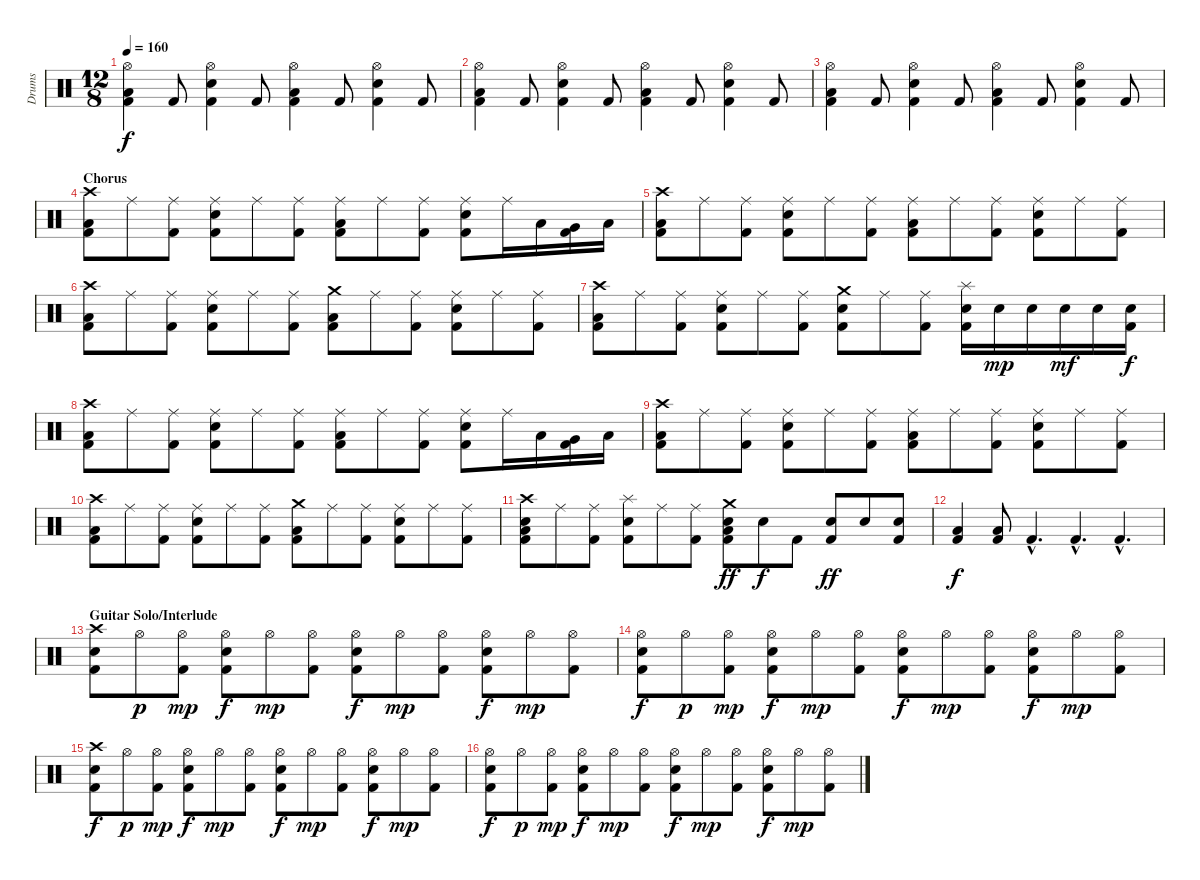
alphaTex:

\track ("Drums" "Drums") {instrument percussion}
\staff {score}
\articulation defaults
\ts (12 8)
\tempo 160
\clef neutral
\ks c
("Hi-Hat (open)" "Low Tom (hit)" "Kick (hit) 2").4{dy f} "Kick (hit) 2".8 ("Hi-Hat (open)" "Electric Snare (hit)" "Kick (hit) 2").4 "Kick (hit) 2".8 ("Hi-Hat (open)" "Low Tom (hit)" "Kick (hit) 2").4 "Kick (hit) 2".8 ("Hi-Hat (open)" "Electric Snare (hit)" "Kick (hit) 2").4 "Kick (hit) 2".8 |
("Hi-Hat (open)" "Low Tom (hit)" "Kick (hit) 2").4 "Kick (hit) 2".8 ("Hi-Hat (open)" "Electric Snare (hit)" "Kick (hit) 2").4 "Kick (hit) 2".8 ("Hi-Hat (open)" "Low Tom (hit)" "Kick (hit) 2").4 "Kick (hit) 2".8 ("Hi-Hat (open)" "Electric Snare (hit)" "Kick (hit) 2").4 "Kick (hit) 2".8 |
("Hi-Hat (open)" "Low Tom (hit)" "Kick (hit) 2").4 "Kick (hit) 2".8 ("Hi-Hat (open)" "Electric Snare (hit)" "Kick (hit) 2").4 "Kick (hit) 2".8 ("Hi-Hat (open)" "Low Tom (hit)" "Kick (hit) 2").4 "Kick (hit) 2".8 ("Hi-Hat (open)" "Electric Snare (hit)" "Kick (hit) 2").4 "Kick (hit) 2".8 |
\section ("" "Chorus")
("Crash high (hit)" "Low Tom (hit)" "Kick (hit) 2").8 "Ride (middle)".8 ("Ride (middle)" "Kick (hit) 2").8 ("Ride (middle)" "Electric Snare (hit)" "Kick (hit) 2").8 "Ride (middle)".8 ("Ride (middle)" "Kick (hit) 2").8 ("Ride (middle)" "Low Tom (hit)" "Kick (hit) 2").8 "Ride (middle)".8 ("Ride (middle)" "Kick (hit) 2").8 ("Ride (middle)" "Electric Snare (hit)" "Kick (hit) 2").8 "Ride (middle)".16 "Low Floor Tom (hit)".16 ("Very Low Tom (hit)" "Kick (hit) 2").16 "Low Tom (hit)".16 |
("Crash high (hit)" "Low Tom (hit)" "Kick (hit) 2").8 "Ride (middle)".8 ("Ride (middle)" "Kick (hit) 2").8 ("Ride (middle)" "Electric Snare (hit)" "Kick (hit) 2").8 "Ride (middle)".8 ("Ride (middle)" "Kick (hit) 2").8 ("Ride (middle)" "Low Tom (hit)" "Kick (hit) 2").8 "Ride (middle)".8 ("Ride (middle)" "Kick (hit) 2").8 ("Ride (middle)" "Electric Snare (hit)" "Kick (hit) 2").8 "Ride (middle)".8 ("Ride (middle)" "Kick (hit) 2").8 |
("Crash high (hit)" "Low Tom (hit)" "Kick (hit) 2").8 "Ride (middle)".8 ("Ride (middle)" "Kick (hit) 2").8 ("Ride (middle)" "Electric Snare (hit)" "Kick (hit) 2").8 "Ride (middle)".8 ("Ride (middle)" "Kick (hit) 2").8 ("Crash medium (hit)" "Low Tom (hit)" "Kick (hit) 2").8 "Ride (middle)".8 ("Ride (middle)" "Kick (hit) 2").8 ("Ride (middle)" "Electric Snare (hit)" "Kick (hit) 2").8 "Ride (middle)".8 ("Ride (middle)" "Kick (hit) 2").8 |
("Crash high (hit)" "Low Tom (hit)" "Kick (hit) 2").8 "Ride (middle)".8 ("Ride (middle)" "Kick (hit) 2").8 ("Ride (middle)" "Electric Snare (hit)" "Kick (hit) 2").8 "Ride (middle)".8 ("Ride (middle)" "Kick (hit) 2").8 ("Crash medium (hit)" "Electric Snare (hit)" "Kick (hit) 2").8 "Ride (middle)".8 ("Ride (middle)" "Kick (hit) 2").8 ("Splash (hit)" "Electric Snare (hit)" "Kick (hit) 2").16 "Electric Snare (hit)".16{dy mp} "Electric Snare (hit)".16 "Electric Snare (hit)".16{dy mf} "Electric Snare (hit)".16 ("Electric Snare (hit)" "Kick (hit) 2").16{dy f} |
("Crash high (hit)" "Low Tom (hit)" "Kick (hit) 2").8 "Ride (middle)".8 ("Ride (middle)" "Kick (hit) 2").8 ("Ride (middle)" "Electric Snare (hit)" "Kick (hit) 2").8 "Ride (middle)".8 ("Ride (middle)" "Kick (hit) 2").8 ("Ride (middle)" "Low Tom (hit)" "Kick (hit) 2").8 "Ride (middle)".8 ("Ride (middle)" "Kick (hit) 2").8 ("Ride (middle)" "Electric Snare (hit)" "Kick (hit) 2").8 "Ride (middle)".16 "Low Floor Tom (hit)".16 ("Very Low Tom (hit)" "Kick (hit) 2").16 "Low Tom (hit)".16 |
("Crash high (hit)" "Low Tom (hit)" "Kick (hit) 2").8 "Ride (middle)".8 ("Ride (middle)" "Kick (hit) 2").8 ("Ride (middle)" "Electric Snare (hit)" "Kick (hit) 2").8 "Ride (middle)".8 ("Ride (middle)" "Kick (hit) 2").8 ("Ride (middle)" "Low Tom (hit)" "Kick (hit) 2").8 "Ride (middle)".8 ("Ride (middle)" "Kick (hit) 2").8 ("Ride (middle)" "Electric Snare (hit)" "Kick (hit) 2").8 "Ride (middle)".8 ("Ride (middle)" "Kick (hit) 2").8 |
("Crash high (hit)" "Low Tom (hit)" "Kick (hit) 2").8 "Ride (middle)".8 ("Ride (middle)" "Kick (hit) 2").8 ("Ride (middle)" "Electric Snare (hit)" "Kick (hit) 2").8 "Ride (middle)".8 ("Ride (middle)" "Kick (hit) 2").8 ("Crash medium (hit)" "Low Tom (hit)" "Kick (hit) 2").8 "Ride (middle)".8 ("Ride (middle)" "Kick (hit) 2").8 ("Ride (middle)" "Electric Snare (hit)" "Kick (hit) 2").8 "Ride (middle)".8 ("Ride (middle)" "Kick (hit) 2").8 |
("Crash high (hit)" "Electric Snare (hit)" "Low Tom (hit)" "Kick (hit) 2").8 "Ride (middle)".8 ("Ride (middle)" "Kick (hit) 2").8 ("Splash (hit)" "Electric Snare (hit)" "Kick (hit) 2").8 "Ride (middle)".8 ("Ride (middle)" "Kick (hit) 2").8 ("Crash medium (hit)" "Electric Snare (hit)" "Low Tom (hit)" "Kick (hit) 2").8{dy ff} "Electric Snare (hit)".8{dy f} "Kick (hit) 2".8 ("Electric Snare (hit)" "Kick (hit) 2").8{dy ff} "Electric Snare (hit)".8 ("Electric Snare (hit)" "Kick (hit) 2").8 |
("Low Tom (hit)" "Kick (hit) 2").4{dy f} ("Low Tom (hit)" "Kick (hit) 2").8 "Kick (hit) 2"{hac}.4{d} "Kick (hit) 2"{hac}.4{d} "Kick (hit) 2"{hac}.4{d} |
\section ("" "Guitar Solo/Interlude")
("Crash high (hit)" "Electric Snare (hit)" "Kick (hit) 2").8 "Hi-Hat (open)".8{dy p} ("Hi-Hat (open)" "Kick (hit) 2").8{dy mp} ("Hi-Hat (open)" "Electric Snare (hit)" "Kick (hit) 2").8{dy f} "Hi-Hat (open)".8{dy mp} ("Hi-Hat (open)" "Kick (hit) 2").8 ("Hi-Hat (open)" "Electric Snare (hit)" "Kick (hit) 2").8{dy f} "Hi-Hat (open)".8{dy mp} ("Hi-Hat (open)" "Kick (hit) 2").8 ("Hi-Hat (open)" "Electric Snare (hit)" "Kick (hit) 2").8{dy f} "Hi-Hat (open)".8{dy mp} ("Hi-Hat (open)" "Kick (hit) 2").8 |
("Hi-Hat (open)" "Electric Snare (hit)" "Kick (hit) 2").8{dy f} "Hi-Hat (open)".8{dy p} ("Hi-Hat (open)" "Kick (hit) 2").8{dy mp} ("Hi-Hat (open)" "Electric Snare (hit)" "Kick (hit) 2").8{dy f} "Hi-Hat (open)".8{dy mp} ("Hi-Hat (open)" "Kick (hit) 2").8 ("Hi-Hat (open)" "Electric Snare (hit)" "Kick (hit) 2").8{dy f} "Hi-Hat (open)".8{dy mp} ("Hi-Hat (open)" "Kick (hit) 2").8 ("Hi-Hat (open)" "Electric Snare (hit)" "Kick (hit) 2").8{dy f} "Hi-Hat (open)".8{dy mp} ("Hi-Hat (open)" "Kick (hit) 2").8 |
("Crash high (hit)" "Electric Snare (hit)" "Kick (hit) 2").8{dy f} "Hi-Hat (open)".8{dy p} ("Hi-Hat (open)" "Kick (hit) 2").8{dy mp} ("Hi-Hat (open)" "Electric Snare (hit)" "Kick (hit) 2").8{dy f} "Hi-Hat (open)".8{dy mp} ("Hi-Hat (open)" "Kick (hit) 2").8 ("Hi-Hat (open)" "Electric Snare (hit)" "Kick (hit) 2").8{dy f} "Hi-Hat (open)".8{dy mp} ("Hi-Hat (open)" "Kick (hit) 2").8 ("Hi-Hat (open)" "Electric Snare (hit)" "Kick (hit) 2").8{dy f} "Hi-Hat (open)".8{dy mp} ("Hi-Hat (open)" "Kick (hit) 2").8 |
("Hi-Hat (open)" "Electric Snare (hit)" "Kick (hit) 2").8{dy f} "Hi-Hat (open)".8{dy p} ("Hi-Hat (open)" "Kick (hit) 2").8{dy mp} ("Hi-Hat (open)" "Electric Snare (hit)" "Kick (hit) 2").8{dy f} "Hi-Hat (open)".8{dy mp} ("Hi-Hat (open)" "Kick (hit) 2").8 ("Hi-Hat (open)" "Electric Snare (hit)" "Kick (hit) 2").8{dy f} "Hi-Hat (open)".8{dy mp} ("Hi-Hat (open)" "Kick (hit) 2").8 ("Hi-Hat (open)" "Electric Snare (hit)" "Kick (hit) 2").8{dy f} "Hi-Hat (open)".8{dy mp} ("Hi-Hat (open)" "Kick (hit) 2").8
